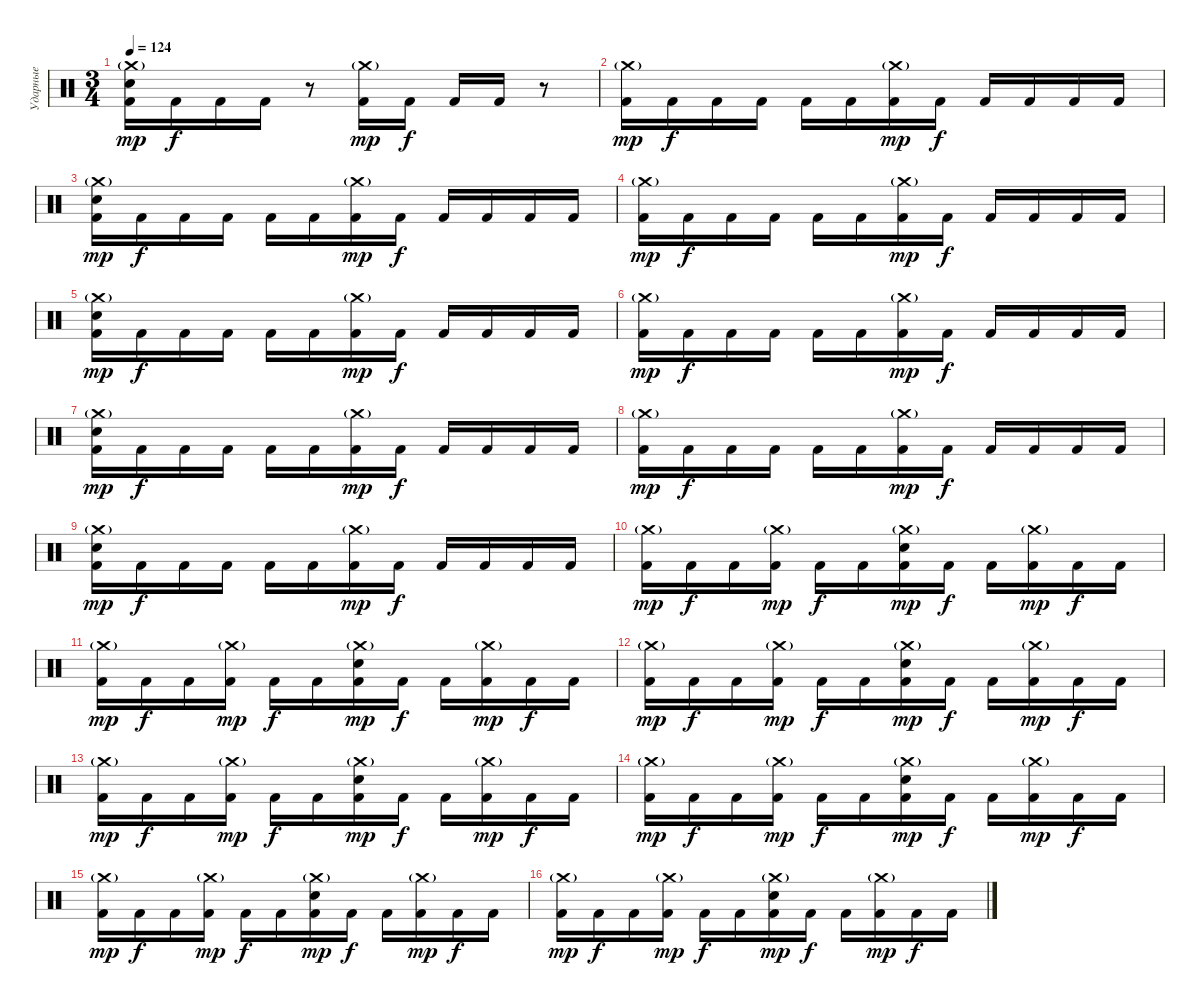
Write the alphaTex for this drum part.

\track ("Ударные" "Ударные") {instrument percussion}
\staff {score}
\articulation defaults
\ts (3 4)
\tempo 124
\clef neutral
\ks c
("Crash medium (hit)"{g} "Electric Snare (hit)" "Kick (hit) 2").16{dy mp} "Kick (hit) 2".16{dy f} "Kick (hit) 2".16 "Kick (hit) 2".16 r.8 ("Crash medium (hit)"{g} "Kick (hit) 2").16{dy mp} "Kick (hit) 2".16{dy f} "Kick (hit) 2".16 "Kick (hit) 2".16 r.8 |
("Crash medium (hit)"{g} "Kick (hit) 2").16{dy mp} "Kick (hit) 2".16{dy f} "Kick (hit) 2".16 "Kick (hit) 2".16 "Kick (hit) 2".16 "Kick (hit) 2".16 ("Crash medium (hit)"{g} "Kick (hit) 2").16{dy mp} "Kick (hit) 2".16{dy f} "Kick (hit) 2".16 "Kick (hit) 2".16 "Kick (hit) 2".16 "Kick (hit) 2".16 |
("Crash medium (hit)"{g} "Electric Snare (hit)" "Kick (hit) 2").16{dy mp} "Kick (hit) 2".16{dy f} "Kick (hit) 2".16 "Kick (hit) 2".16 "Kick (hit) 2".16 "Kick (hit) 2".16 ("Crash medium (hit)"{g} "Kick (hit) 2").16{dy mp} "Kick (hit) 2".16{dy f} "Kick (hit) 2".16 "Kick (hit) 2".16 "Kick (hit) 2".16 "Kick (hit) 2".16 |
("Crash medium (hit)"{g} "Kick (hit) 2").16{dy mp} "Kick (hit) 2".16{dy f} "Kick (hit) 2".16 "Kick (hit) 2".16 "Kick (hit) 2".16 "Kick (hit) 2".16 ("Crash medium (hit)"{g} "Kick (hit) 2").16{dy mp} "Kick (hit) 2".16{dy f} "Kick (hit) 2".16 "Kick (hit) 2".16 "Kick (hit) 2".16 "Kick (hit) 2".16 |
("Crash medium (hit)"{g} "Electric Snare (hit)" "Kick (hit) 2").16{dy mp} "Kick (hit) 2".16{dy f} "Kick (hit) 2".16 "Kick (hit) 2".16 "Kick (hit) 2".16 "Kick (hit) 2".16 ("Crash medium (hit)"{g} "Kick (hit) 2").16{dy mp} "Kick (hit) 2".16{dy f} "Kick (hit) 2".16 "Kick (hit) 2".16 "Kick (hit) 2".16 "Kick (hit) 2".16 |
("Crash medium (hit)"{g} "Kick (hit) 2").16{dy mp} "Kick (hit) 2".16{dy f} "Kick (hit) 2".16 "Kick (hit) 2".16 "Kick (hit) 2".16 "Kick (hit) 2".16 ("Crash medium (hit)"{g} "Kick (hit) 2").16{dy mp} "Kick (hit) 2".16{dy f} "Kick (hit) 2".16 "Kick (hit) 2".16 "Kick (hit) 2".16 "Kick (hit) 2".16 |
("Crash medium (hit)"{g} "Electric Snare (hit)" "Kick (hit) 2").16{dy mp} "Kick (hit) 2".16{dy f} "Kick (hit) 2".16 "Kick (hit) 2".16 "Kick (hit) 2".16 "Kick (hit) 2".16 ("Crash medium (hit)"{g} "Kick (hit) 2").16{dy mp} "Kick (hit) 2".16{dy f} "Kick (hit) 2".16 "Kick (hit) 2".16 "Kick (hit) 2".16 "Kick (hit) 2".16 |
("Crash medium (hit)"{g} "Kick (hit) 2").16{dy mp} "Kick (hit) 2".16{dy f} "Kick (hit) 2".16 "Kick (hit) 2".16 "Kick (hit) 2".16 "Kick (hit) 2".16 ("Crash medium (hit)"{g} "Kick (hit) 2").16{dy mp} "Kick (hit) 2".16{dy f} "Kick (hit) 2".16 "Kick (hit) 2".16 "Kick (hit) 2".16 "Kick (hit) 2".16 |
("Crash medium (hit)"{g} "Electric Snare (hit)" "Kick (hit) 2").16{dy mp} "Kick (hit) 2".16{dy f} "Kick (hit) 2".16 "Kick (hit) 2".16 "Kick (hit) 2".16 "Kick (hit) 2".16 ("Crash medium (hit)"{g} "Kick (hit) 2").16{dy mp} "Kick (hit) 2".16{dy f} "Kick (hit) 2".16 "Kick (hit) 2".16 "Kick (hit) 2".16 "Kick (hit) 2".16 |
("Crash medium (hit)"{g} "Kick (hit) 2").16{dy mp} "Kick (hit) 2".16{dy f} "Kick (hit) 2".16 ("Crash medium (hit)"{g} "Kick (hit) 2").16{dy mp} "Kick (hit) 2".16{dy f} "Kick (hit) 2".16 ("Crash medium (hit)"{g} "Electric Snare (hit)" "Kick (hit) 2").16{dy mp} "Kick (hit) 2".16{dy f} "Kick (hit) 2".16 ("Crash medium (hit)"{g} "Kick (hit) 2").16{dy mp} "Kick (hit) 2".16{dy f} "Kick (hit) 2".16 |
("Crash medium (hit)"{g} "Kick (hit) 2").16{dy mp} "Kick (hit) 2".16{dy f} "Kick (hit) 2".16 ("Crash medium (hit)"{g} "Kick (hit) 2").16{dy mp} "Kick (hit) 2".16{dy f} "Kick (hit) 2".16 ("Crash medium (hit)"{g} "Electric Snare (hit)" "Kick (hit) 2").16{dy mp} "Kick (hit) 2".16{dy f} "Kick (hit) 2".16 ("Crash medium (hit)"{g} "Kick (hit) 2").16{dy mp} "Kick (hit) 2".16{dy f} "Kick (hit) 2".16 |
("Crash medium (hit)"{g} "Kick (hit) 2").16{dy mp} "Kick (hit) 2".16{dy f} "Kick (hit) 2".16 ("Crash medium (hit)"{g} "Kick (hit) 2").16{dy mp} "Kick (hit) 2".16{dy f} "Kick (hit) 2".16 ("Crash medium (hit)"{g} "Electric Snare (hit)" "Kick (hit) 2").16{dy mp} "Kick (hit) 2".16{dy f} "Kick (hit) 2".16 ("Crash medium (hit)"{g} "Kick (hit) 2").16{dy mp} "Kick (hit) 2".16{dy f} "Kick (hit) 2".16 |
("Crash medium (hit)"{g} "Kick (hit) 2").16{dy mp} "Kick (hit) 2".16{dy f} "Kick (hit) 2".16 ("Crash medium (hit)"{g} "Kick (hit) 2").16{dy mp} "Kick (hit) 2".16{dy f} "Kick (hit) 2".16 ("Crash medium (hit)"{g} "Electric Snare (hit)" "Kick (hit) 2").16{dy mp} "Kick (hit) 2".16{dy f} "Kick (hit) 2".16 ("Crash medium (hit)"{g} "Kick (hit) 2").16{dy mp} "Kick (hit) 2".16{dy f} "Kick (hit) 2".16 |
("Crash medium (hit)"{g} "Kick (hit) 2").16{dy mp} "Kick (hit) 2".16{dy f} "Kick (hit) 2".16 ("Crash medium (hit)"{g} "Kick (hit) 2").16{dy mp} "Kick (hit) 2".16{dy f} "Kick (hit) 2".16 ("Crash medium (hit)"{g} "Electric Snare (hit)" "Kick (hit) 2").16{dy mp} "Kick (hit) 2".16{dy f} "Kick (hit) 2".16 ("Crash medium (hit)"{g} "Kick (hit) 2").16{dy mp} "Kick (hit) 2".16{dy f} "Kick (hit) 2".16 |
("Crash medium (hit)"{g} "Kick (hit) 2").16{dy mp} "Kick (hit) 2".16{dy f} "Kick (hit) 2".16 ("Crash medium (hit)"{g} "Kick (hit) 2").16{dy mp} "Kick (hit) 2".16{dy f} "Kick (hit) 2".16 ("Crash medium (hit)"{g} "Electric Snare (hit)" "Kick (hit) 2").16{dy mp} "Kick (hit) 2".16{dy f} "Kick (hit) 2".16 ("Crash medium (hit)"{g} "Kick (hit) 2").16{dy mp} "Kick (hit) 2".16{dy f} "Kick (hit) 2".16 |
("Crash medium (hit)"{g} "Kick (hit) 2").16{dy mp} "Kick (hit) 2".16{dy f} "Kick (hit) 2".16 ("Crash medium (hit)"{g} "Kick (hit) 2").16{dy mp} "Kick (hit) 2".16{dy f} "Kick (hit) 2".16 ("Crash medium (hit)"{g} "Electric Snare (hit)" "Kick (hit) 2").16{dy mp} "Kick (hit) 2".16{dy f} "Kick (hit) 2".16 ("Crash medium (hit)"{g} "Kick (hit) 2").16{dy mp} "Kick (hit) 2".16{dy f} "Kick (hit) 2".16
